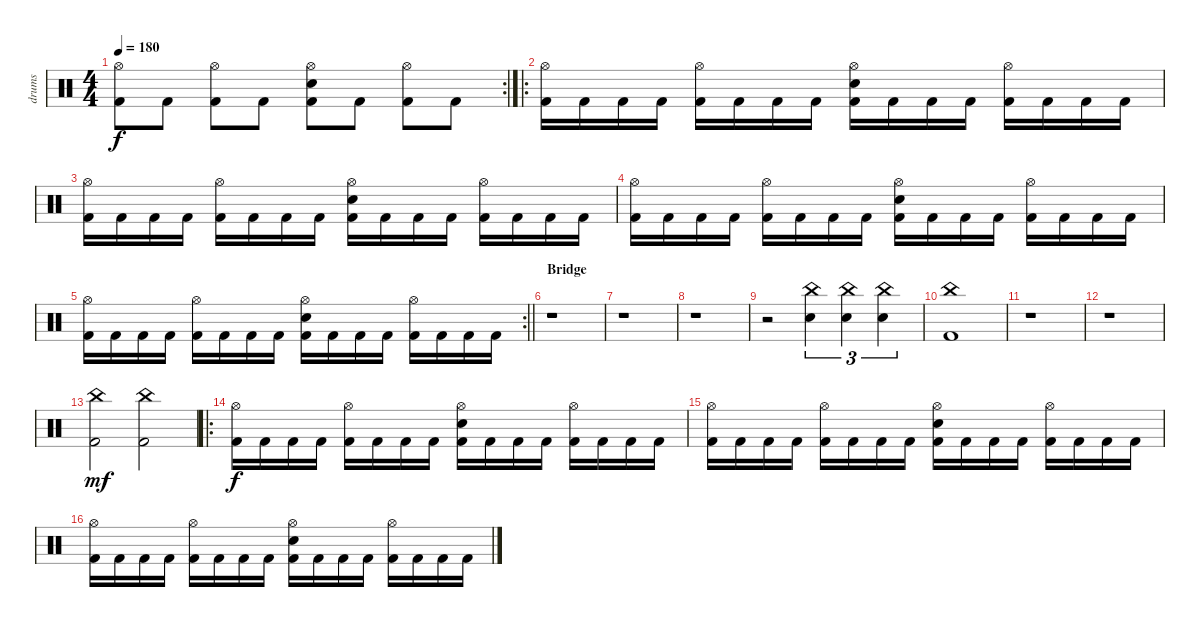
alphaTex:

\track ("drums" "drums") {instrument percussion}
\staff {score}
\articulation defaults
\rc 2
\ts (4 4)
\tempo 180
\clef neutral
\ks c
("Hi-Hat (open)" "Kick (hit) 2").8{dy f} "Kick (hit) 2".8 ("Hi-Hat (open)" "Kick (hit) 2").8 "Kick (hit) 2".8 ("Hi-Hat (open)" "Snare (hit) 2" "Kick (hit) 2").8 "Kick (hit) 2".8 ("Hi-Hat (open)" "Kick (hit) 2").8 "Kick (hit) 2".8 |
\ro
("Hi-Hat (open)" "Kick (hit) 2").16 "Kick (hit) 2".16 "Kick (hit) 2".16 "Kick (hit) 2".16 ("Hi-Hat (open)" "Kick (hit) 2").16 "Kick (hit) 2".16 "Kick (hit) 2".16 "Kick (hit) 2".16 ("Hi-Hat (open)" "Snare (hit) 2" "Kick (hit) 2").16 "Kick (hit) 2".16 "Kick (hit) 2".16 "Kick (hit) 2".16 ("Hi-Hat (open)" "Kick (hit) 2").16 "Kick (hit) 2".16 "Kick (hit) 2".16 "Kick (hit) 2".16 |
("Hi-Hat (open)" "Kick (hit) 2").16 "Kick (hit) 2".16 "Kick (hit) 2".16 "Kick (hit) 2".16 ("Hi-Hat (open)" "Kick (hit) 2").16 "Kick (hit) 2".16 "Kick (hit) 2".16 "Kick (hit) 2".16 ("Hi-Hat (open)" "Snare (hit) 2" "Kick (hit) 2").16 "Kick (hit) 2".16 "Kick (hit) 2".16 "Kick (hit) 2".16 ("Hi-Hat (open)" "Kick (hit) 2").16 "Kick (hit) 2".16 "Kick (hit) 2".16 "Kick (hit) 2".16 |
("Hi-Hat (open)" "Kick (hit) 2").16 "Kick (hit) 2".16 "Kick (hit) 2".16 "Kick (hit) 2".16 ("Hi-Hat (open)" "Kick (hit) 2").16 "Kick (hit) 2".16 "Kick (hit) 2".16 "Kick (hit) 2".16 ("Hi-Hat (open)" "Snare (hit) 2" "Kick (hit) 2").16 "Kick (hit) 2".16 "Kick (hit) 2".16 "Kick (hit) 2".16 ("Hi-Hat (open)" "Kick (hit) 2").16 "Kick (hit) 2".16 "Kick (hit) 2".16 "Kick (hit) 2".16 |
\rc 2
\barLineRight lightlight
("Hi-Hat (open)" "Kick (hit) 2").16 "Kick (hit) 2".16 "Kick (hit) 2".16 "Kick (hit) 2".16 ("Hi-Hat (open)" "Kick (hit) 2").16 "Kick (hit) 2".16 "Kick (hit) 2".16 "Kick (hit) 2".16 ("Hi-Hat (open)" "Snare (hit) 2" "Kick (hit) 2").16 "Kick (hit) 2".16 "Kick (hit) 2".16 "Kick (hit) 2".16 ("Hi-Hat (open)" "Kick (hit) 2").16 "Kick (hit) 2".16 "Kick (hit) 2".16 "Kick (hit) 2".16 |
\section ("" "Bridge")
r.1 |
r.1 |
r.1 |
r.2 ("China (hit)" "Snare (hit) 2").4{tu (3 2)} ("China (hit)" "Snare (hit) 2").4{tu (3 2)} ("China (hit)" "Snare (hit) 2").4{tu (3 2)} |
("China (hit)" "Kick (hit) 2").1 |
r.1 |
r.1 |
("China (hit)" "Kick (hit) 2").2{dy mf} ("China (hit)" "Kick (hit) 2").2 |
\ro
("Hi-Hat (open)" "Kick (hit) 2").16{dy f} "Kick (hit) 2".16 "Kick (hit) 2".16 "Kick (hit) 2".16 ("Hi-Hat (open)" "Kick (hit) 2").16 "Kick (hit) 2".16 "Kick (hit) 2".16 "Kick (hit) 2".16 ("Hi-Hat (open)" "Snare (hit) 2" "Kick (hit) 2").16 "Kick (hit) 2".16 "Kick (hit) 2".16 "Kick (hit) 2".16 ("Hi-Hat (open)" "Kick (hit) 2").16 "Kick (hit) 2".16 "Kick (hit) 2".16 "Kick (hit) 2".16 |
("Hi-Hat (open)" "Kick (hit) 2").16 "Kick (hit) 2".16 "Kick (hit) 2".16 "Kick (hit) 2".16 ("Hi-Hat (open)" "Kick (hit) 2").16 "Kick (hit) 2".16 "Kick (hit) 2".16 "Kick (hit) 2".16 ("Hi-Hat (open)" "Snare (hit) 2" "Kick (hit) 2").16 "Kick (hit) 2".16 "Kick (hit) 2".16 "Kick (hit) 2".16 ("Hi-Hat (open)" "Kick (hit) 2").16 "Kick (hit) 2".16 "Kick (hit) 2".16 "Kick (hit) 2".16 |
("Hi-Hat (open)" "Kick (hit) 2").16 "Kick (hit) 2".16 "Kick (hit) 2".16 "Kick (hit) 2".16 ("Hi-Hat (open)" "Kick (hit) 2").16 "Kick (hit) 2".16 "Kick (hit) 2".16 "Kick (hit) 2".16 ("Hi-Hat (open)" "Snare (hit) 2" "Kick (hit) 2").16 "Kick (hit) 2".16 "Kick (hit) 2".16 "Kick (hit) 2".16 ("Hi-Hat (open)" "Kick (hit) 2").16 "Kick (hit) 2".16 "Kick (hit) 2".16 "Kick (hit) 2".16
